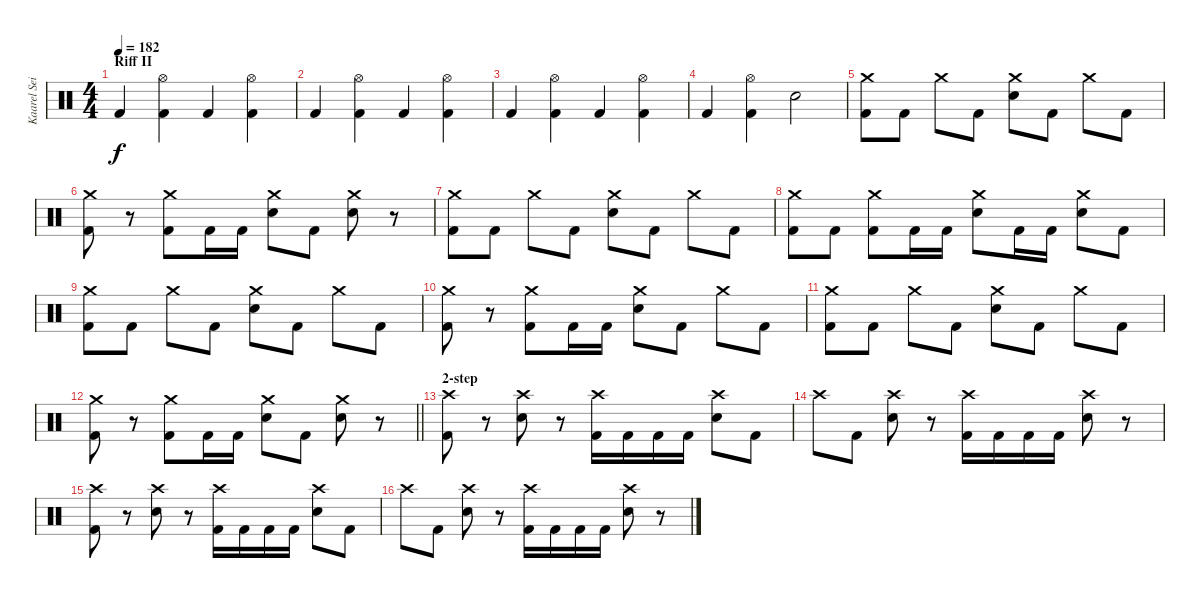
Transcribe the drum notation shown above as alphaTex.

\track ("Kaarel Sein" "Kaarel Sei") {instrument percussion}
\staff {score}
\articulation defaults
\ts (4 4)
\section ("" "Riff II")
\tempo 182
\clef neutral
\ks c "Kick (hit) 2".4{dy f}
("Hi-Hat (open)" "Kick (hit) 2").4 "Kick (hit) 2".4 ("Hi-Hat (open)" "Kick (hit) 2").4 |
"Kick (hit) 2".4 ("Hi-Hat (open)" "Kick (hit) 2").4 "Kick (hit) 2".4 ("Hi-Hat (open)" "Kick (hit) 2").4 |
"Kick (hit) 2".4 ("Hi-Hat (open)" "Kick (hit) 2").4 "Kick (hit) 2".4 ("Hi-Hat (open)" "Kick (hit) 2").4 |
"Kick (hit) 2".4 ("Hi-Hat (open)" "Kick (hit) 2").4 "Electric Snare (hit)".2 |
("Crash medium (hit)" "Kick (hit) 2").8 "Kick (hit) 2".8 "Crash medium (hit)".8 "Kick (hit) 2".8 ("Crash medium (hit)" "Electric Snare (hit)").8 "Kick (hit) 2".8 "Crash medium (hit)".8 "Kick (hit) 2".8 |
("Crash medium (hit)" "Kick (hit) 2").8 r.8 ("Crash medium (hit)" "Kick (hit) 2").8 "Kick (hit) 2".16 "Kick (hit) 2".16 ("Crash medium (hit)" "Electric Snare (hit)").8 "Kick (hit) 2".8 ("Crash medium (hit)" "Electric Snare (hit)").8 r.8 |
("Crash medium (hit)" "Kick (hit) 2").8 "Kick (hit) 2".8 "Crash medium (hit)".8 "Kick (hit) 2".8 ("Crash medium (hit)" "Electric Snare (hit)").8 "Kick (hit) 2".8 "Crash medium (hit)".8 "Kick (hit) 2".8 |
("Crash medium (hit)" "Kick (hit) 2").8 "Kick (hit) 2".8 ("Crash medium (hit)" "Kick (hit) 2").8 "Kick (hit) 2".16 "Kick (hit) 2".16 ("Crash medium (hit)" "Electric Snare (hit)").8 "Kick (hit) 2".16 "Kick (hit) 2".16 ("Crash medium (hit)" "Electric Snare (hit)").8 "Kick (hit) 2".8 |
("Crash medium (hit)" "Kick (hit) 2").8 "Kick (hit) 2".8 "Crash medium (hit)".8 "Kick (hit) 2".8 ("Crash medium (hit)" "Electric Snare (hit)").8 "Kick (hit) 2".8 "Crash medium (hit)".8 "Kick (hit) 2".8 |
("Crash medium (hit)" "Kick (hit) 2").8 r.8 ("Crash medium (hit)" "Kick (hit) 2").8 "Kick (hit) 2".16 "Kick (hit) 2".16 ("Crash medium (hit)" "Electric Snare (hit)").8 "Kick (hit) 2".8 "Crash medium (hit)".8 "Kick (hit) 2".8 |
("Crash medium (hit)" "Kick (hit) 2").8 "Kick (hit) 2".8 "Crash medium (hit)".8 "Kick (hit) 2".8 ("Crash medium (hit)" "Electric Snare (hit)").8 "Kick (hit) 2".8 "Crash medium (hit)".8 "Kick (hit) 2".8 |
\barLineRight lightlight
("Crash medium (hit)" "Kick (hit) 2").8 r.8 ("Crash medium (hit)" "Kick (hit) 2").8 "Kick (hit) 2".16 "Kick (hit) 2".16 ("Crash medium (hit)" "Electric Snare (hit)").8 "Kick (hit) 2".8 ("Crash medium (hit)" "Electric Snare (hit)").8 r.8 |
\section ("" "2-step")
("Crash high (hit)" "Kick (hit) 2").8 r.8 ("Crash high (hit)" "Electric Snare (hit)").8 r.8 ("Crash high (hit)" "Kick (hit) 2").16 "Kick (hit) 2".16 "Kick (hit) 2".16 "Kick (hit) 2".16 ("Crash high (hit)" "Electric Snare (hit)").8 "Kick (hit) 2".8 |
"Crash high (hit)".8 "Kick (hit) 2".8 ("Crash high (hit)" "Electric Snare (hit)").8 r.8 ("Crash high (hit)" "Kick (hit) 2").16 "Kick (hit) 2".16 "Kick (hit) 2".16 "Kick (hit) 2".16 ("Crash high (hit)" "Electric Snare (hit)").8 r.8 |
("Crash high (hit)" "Kick (hit) 2").8 r.8 ("Crash high (hit)" "Electric Snare (hit)").8 r.8 ("Crash high (hit)" "Kick (hit) 2").16 "Kick (hit) 2".16 "Kick (hit) 2".16 "Kick (hit) 2".16 ("Crash high (hit)" "Electric Snare (hit)").8 "Kick (hit) 2".8 |
"Crash high (hit)".8 "Kick (hit) 2".8 ("Crash high (hit)" "Electric Snare (hit)").8 r.8 ("Crash high (hit)" "Kick (hit) 2").16 "Kick (hit) 2".16 "Kick (hit) 2".16 "Kick (hit) 2".16 ("Crash high (hit)" "Electric Snare (hit)").8 r.8
